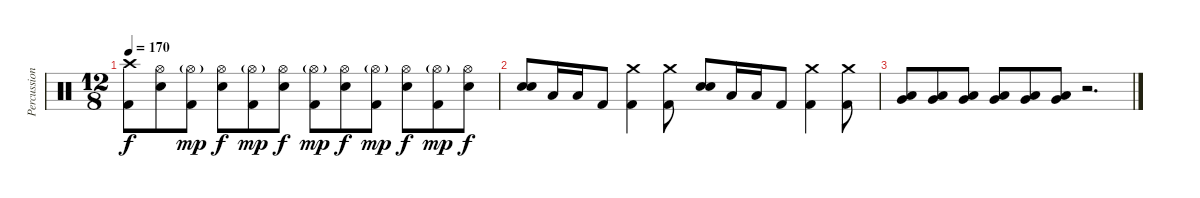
\track ("Percussion" "Percussion") {instrument percussion}
\staff {score}
\articulation defaults
\ts (12 8)
\tempo 170
\clef neutral
\ks c
("Crash high (hit)" "Kick (hit) 2").8{dy f} ("Hi-Hat (open)" "Electric Snare (hit)").8 ("Hi-Hat (open)"{g} "Kick (hit) 2").8{dy mp} ("Hi-Hat (open)" "Electric Snare (hit)").8{dy f} ("Hi-Hat (open)"{g} "Kick (hit) 2").8{dy mp} ("Hi-Hat (open)" "Electric Snare (hit)").8{dy f} ("Hi-Hat (open)"{g} "Kick (hit) 2").8{dy mp} ("Hi-Hat (open)" "Electric Snare (hit)").8{dy f} ("Hi-Hat (open)"{g} "Kick (hit) 2").8{dy mp} ("Hi-Hat (open)" "Electric Snare (hit)").8{dy f} ("Hi-Hat (open)"{g} "Kick (hit) 2").8{dy mp} ("Hi-Hat (open)" "Electric Snare (hit)").8{dy f} |
("Electric Snare (hit)" "Electric Snare (hit)").8{bd 240} "Low Floor Tom (hit)".16 "Low Floor Tom (hit)".16 "Kick (hit) 2".8 ("Crash medium (hit)" "Kick (hit) 2").4 ("Crash medium (hit)" "Kick (hit) 2").8 ("Electric Snare (hit)" "Electric Snare (hit)").8{bd 240} "Low Floor Tom (hit)".16 "Low Floor Tom (hit)".16 "Kick (hit) 2".8 ("Crash medium (hit)" "Kick (hit) 2").4 ("Crash medium (hit)" "Kick (hit) 2").8 |
("Very Low Tom (hit)" "Low Floor Tom (hit)").8{bd 240} ("Very Low Tom (hit)" "Low Floor Tom (hit)").8 ("Very Low Tom (hit)" "Low Floor Tom (hit)").8 ("Very Low Tom (hit)" "Low Floor Tom (hit)").8 ("Very Low Tom (hit)" "Low Floor Tom (hit)").8 ("Very Low Tom (hit)" "Low Floor Tom (hit)").8 r.2{d}
